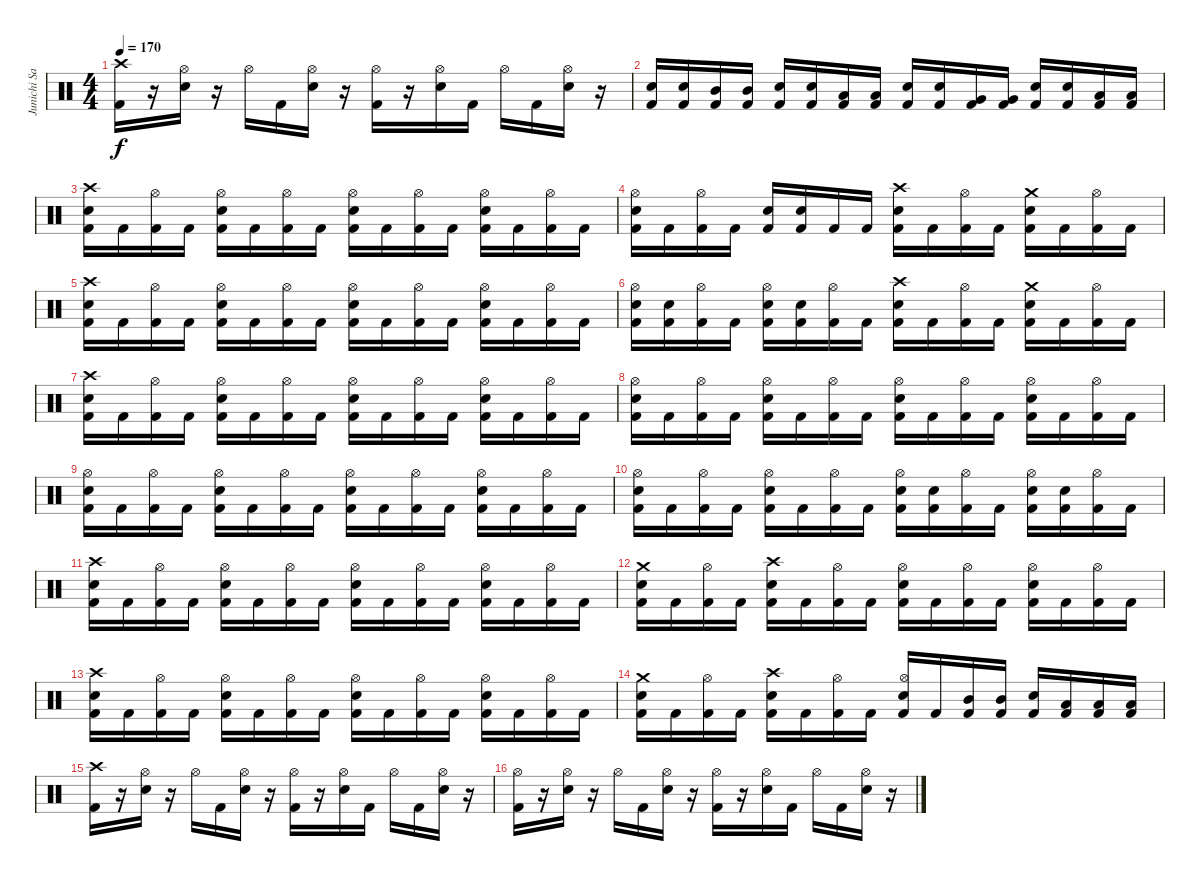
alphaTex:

\track ("Junichi Sato" "Junichi Sa") {instrument percussion}
\staff {score}
\articulation defaults
\ts (4 4)
\tempo 170
\clef neutral
\ks c
("Crash high (hit)" "Kick (hit) 2").16{dy f} r.16 ("Hi-Hat (open)" "Electric Snare (hit)").16 r.16 "Hi-Hat (open)".16 "Kick (hit) 2".16 ("Hi-Hat (open)" "Electric Snare (hit)").16 r.16 ("Hi-Hat (open)" "Kick (hit) 2").16 r.16 ("Hi-Hat (open)" "Electric Snare (hit)").16 "Kick (hit) 2".16 "Hi-Hat (open)".16 "Kick (hit) 2".16 ("Hi-Hat (open)" "Electric Snare (hit)").16 r.16 |
("Electric Snare (hit)" "Kick (hit) 2").16 ("Electric Snare (hit)" "Kick (hit) 2").16 ("Mid Tom (hit)" "Kick (hit) 2").16 ("Mid Tom (hit)" "Kick (hit) 2").16 ("Electric Snare (hit)" "Kick (hit) 2").16 ("Electric Snare (hit)" "Kick (hit) 2").16 ("Low Tom (hit)" "Kick (hit) 2").16 ("Low Tom (hit)" "Kick (hit) 2").16 ("Electric Snare (hit)" "Kick (hit) 2").16 ("Electric Snare (hit)" "Kick (hit) 2").16 ("Very Low Tom (hit)" "Kick (hit) 2").16 ("Very Low Tom (hit)" "Kick (hit) 2").16 ("Electric Snare (hit)" "Kick (hit) 2").16 ("Electric Snare (hit)" "Kick (hit) 2").16 ("Low Floor Tom (hit)" "Kick (hit) 2").16 ("Low Floor Tom (hit)" "Kick (hit) 2").16 |
("Crash high (hit)" "Electric Snare (hit)" "Kick (hit) 2").16 "Kick (hit) 2".16 ("Hi-Hat (open)" "Kick (hit) 2").16 "Kick (hit) 2".16 ("Hi-Hat (open)" "Electric Snare (hit)" "Kick (hit) 2").16 "Kick (hit) 2".16 ("Hi-Hat (open)" "Kick (hit) 2").16 "Kick (hit) 2".16 ("Hi-Hat (open)" "Electric Snare (hit)" "Kick (hit) 2").16 "Kick (hit) 2".16 ("Hi-Hat (open)" "Kick (hit) 2").16 "Kick (hit) 2".16 ("Hi-Hat (open)" "Electric Snare (hit)" "Kick (hit) 2").16 "Kick (hit) 2".16 ("Hi-Hat (open)" "Kick (hit) 2").16 "Kick (hit) 2".16 |
("Hi-Hat (open)" "Electric Snare (hit)" "Kick (hit) 2").16 "Kick (hit) 2".16 ("Hi-Hat (open)" "Kick (hit) 2").16 "Kick (hit) 2".16 ("Electric Snare (hit)" "Kick (hit) 2").16 ("Electric Snare (hit)" "Kick (hit) 2").16 "Kick (hit) 2".16 "Kick (hit) 2".16 ("Crash high (hit)" "Electric Snare (hit)" "Kick (hit) 2").16 "Kick (hit) 2".16 ("Hi-Hat (open)" "Kick (hit) 2").16 "Kick (hit) 2".16 ("Crash medium (hit)" "Electric Snare (hit)" "Kick (hit) 2").16 "Kick (hit) 2".16 ("Hi-Hat (open)" "Kick (hit) 2").16 "Kick (hit) 2".16 |
("Crash high (hit)" "Electric Snare (hit)" "Kick (hit) 2").16 "Kick (hit) 2".16 ("Hi-Hat (open)" "Kick (hit) 2").16 "Kick (hit) 2".16 ("Hi-Hat (open)" "Electric Snare (hit)" "Kick (hit) 2").16 "Kick (hit) 2".16 ("Hi-Hat (open)" "Kick (hit) 2").16 "Kick (hit) 2".16 ("Hi-Hat (open)" "Electric Snare (hit)" "Kick (hit) 2").16 "Kick (hit) 2".16 ("Hi-Hat (open)" "Kick (hit) 2").16 "Kick (hit) 2".16 ("Hi-Hat (open)" "Electric Snare (hit)" "Kick (hit) 2").16 "Kick (hit) 2".16 ("Hi-Hat (open)" "Kick (hit) 2").16 "Kick (hit) 2".16 |
("Hi-Hat (open)" "Electric Snare (hit)" "Kick (hit) 2").16 ("Electric Snare (hit)" "Kick (hit) 2").16 ("Hi-Hat (open)" "Kick (hit) 2").16 "Kick (hit) 2".16 ("Hi-Hat (open)" "Electric Snare (hit)" "Kick (hit) 2").16 ("Electric Snare (hit)" "Kick (hit) 2").16 ("Hi-Hat (open)" "Kick (hit) 2").16 "Kick (hit) 2".16 ("Crash high (hit)" "Electric Snare (hit)" "Kick (hit) 2").16 "Kick (hit) 2".16 ("Hi-Hat (open)" "Kick (hit) 2").16 "Kick (hit) 2".16 ("Crash medium (hit)" "Electric Snare (hit)" "Kick (hit) 2").16 "Kick (hit) 2".16 ("Hi-Hat (open)" "Kick (hit) 2").16 "Kick (hit) 2".16 |
("Crash high (hit)" "Electric Snare (hit)" "Kick (hit) 2").16 "Kick (hit) 2".16 ("Hi-Hat (open)" "Kick (hit) 2").16 "Kick (hit) 2".16 ("Hi-Hat (open)" "Electric Snare (hit)" "Kick (hit) 2").16 "Kick (hit) 2".16 ("Hi-Hat (open)" "Kick (hit) 2").16 "Kick (hit) 2".16 ("Hi-Hat (open)" "Electric Snare (hit)" "Kick (hit) 2").16 "Kick (hit) 2".16 ("Hi-Hat (open)" "Kick (hit) 2").16 "Kick (hit) 2".16 ("Hi-Hat (open)" "Electric Snare (hit)" "Kick (hit) 2").16 "Kick (hit) 2".16 ("Hi-Hat (open)" "Kick (hit) 2").16 "Kick (hit) 2".16 |
("Hi-Hat (open)" "Electric Snare (hit)" "Kick (hit) 2").16 "Kick (hit) 2".16 ("Hi-Hat (open)" "Kick (hit) 2").16 "Kick (hit) 2".16 ("Hi-Hat (open)" "Electric Snare (hit)" "Kick (hit) 2").16 "Kick (hit) 2".16 ("Hi-Hat (open)" "Kick (hit) 2").16 "Kick (hit) 2".16 ("Hi-Hat (open)" "Electric Snare (hit)" "Kick (hit) 2").16 "Kick (hit) 2".16 ("Hi-Hat (open)" "Kick (hit) 2").16 "Kick (hit) 2".16 ("Hi-Hat (open)" "Electric Snare (hit)" "Kick (hit) 2").16 "Kick (hit) 2".16 ("Hi-Hat (open)" "Kick (hit) 2").16 "Kick (hit) 2".16 |
("Hi-Hat (open)" "Electric Snare (hit)" "Kick (hit) 2").16 "Kick (hit) 2".16 ("Hi-Hat (open)" "Kick (hit) 2").16 "Kick (hit) 2".16 ("Hi-Hat (open)" "Electric Snare (hit)" "Kick (hit) 2").16 "Kick (hit) 2".16 ("Hi-Hat (open)" "Kick (hit) 2").16 "Kick (hit) 2".16 ("Hi-Hat (open)" "Electric Snare (hit)" "Kick (hit) 2").16 "Kick (hit) 2".16 ("Hi-Hat (open)" "Kick (hit) 2").16 "Kick (hit) 2".16 ("Hi-Hat (open)" "Electric Snare (hit)" "Kick (hit) 2").16 "Kick (hit) 2".16 ("Hi-Hat (open)" "Kick (hit) 2").16 "Kick (hit) 2".16 |
("Hi-Hat (open)" "Electric Snare (hit)" "Kick (hit) 2").16 "Kick (hit) 2".16 ("Hi-Hat (open)" "Kick (hit) 2").16 "Kick (hit) 2".16 ("Hi-Hat (open)" "Electric Snare (hit)" "Kick (hit) 2").16 "Kick (hit) 2".16 ("Hi-Hat (open)" "Kick (hit) 2").16 "Kick (hit) 2".16 ("Hi-Hat (open)" "Electric Snare (hit)" "Kick (hit) 2").16 ("Electric Snare (hit)" "Kick (hit) 2").16 ("Hi-Hat (open)" "Kick (hit) 2").16 "Kick (hit) 2".16 ("Hi-Hat (open)" "Electric Snare (hit)" "Kick (hit) 2").16 ("Electric Snare (hit)" "Kick (hit) 2").16 ("Hi-Hat (open)" "Kick (hit) 2").16 "Kick (hit) 2".16 |
("Crash high (hit)" "Electric Snare (hit)" "Kick (hit) 2").16 "Kick (hit) 2".16 ("Hi-Hat (open)" "Kick (hit) 2").16 "Kick (hit) 2".16 ("Hi-Hat (open)" "Electric Snare (hit)" "Kick (hit) 2").16 "Kick (hit) 2".16 ("Hi-Hat (open)" "Kick (hit) 2").16 "Kick (hit) 2".16 ("Hi-Hat (open)" "Electric Snare (hit)" "Kick (hit) 2").16 "Kick (hit) 2".16 ("Hi-Hat (open)" "Kick (hit) 2").16 "Kick (hit) 2".16 ("Hi-Hat (open)" "Electric Snare (hit)" "Kick (hit) 2").16 "Kick (hit) 2".16 ("Hi-Hat (open)" "Kick (hit) 2").16 "Kick (hit) 2".16 |
("Crash medium (hit)" "Electric Snare (hit)" "Kick (hit) 2").16 "Kick (hit) 2".16 ("Hi-Hat (open)" "Kick (hit) 2").16 "Kick (hit) 2".16 ("Crash high (hit)" "Electric Snare (hit)" "Kick (hit) 2").16 "Kick (hit) 2".16 ("Hi-Hat (open)" "Kick (hit) 2").16 "Kick (hit) 2".16 ("Hi-Hat (open)" "Electric Snare (hit)" "Kick (hit) 2").16 "Kick (hit) 2".16 ("Hi-Hat (open)" "Kick (hit) 2").16 "Kick (hit) 2".16 ("Hi-Hat (open)" "Electric Snare (hit)" "Kick (hit) 2").16 "Kick (hit) 2".16 ("Hi-Hat (open)" "Kick (hit) 2").16 "Kick (hit) 2".16 |
("Crash high (hit)" "Electric Snare (hit)" "Kick (hit) 2").16 "Kick (hit) 2".16 ("Hi-Hat (open)" "Kick (hit) 2").16 "Kick (hit) 2".16 ("Hi-Hat (open)" "Electric Snare (hit)" "Kick (hit) 2").16 "Kick (hit) 2".16 ("Hi-Hat (open)" "Kick (hit) 2").16 "Kick (hit) 2".16 ("Hi-Hat (open)" "Electric Snare (hit)" "Kick (hit) 2").16 "Kick (hit) 2".16 ("Hi-Hat (open)" "Kick (hit) 2").16 "Kick (hit) 2".16 ("Hi-Hat (open)" "Electric Snare (hit)" "Kick (hit) 2").16 "Kick (hit) 2".16 ("Hi-Hat (open)" "Kick (hit) 2").16 "Kick (hit) 2".16 |
("Crash medium (hit)" "Electric Snare (hit)" "Kick (hit) 2").16 "Kick (hit) 2".16 ("Hi-Hat (open)" "Kick (hit) 2").16 "Kick (hit) 2".16 ("Crash high (hit)" "Electric Snare (hit)" "Kick (hit) 2").16 "Kick (hit) 2".16 ("Hi-Hat (open)" "Kick (hit) 2").16 "Kick (hit) 2".16 ("Hi-Hat (open)" "Electric Snare (hit)" "Kick (hit) 2").16 "Kick (hit) 2".16 ("Mid Tom (hit)" "Kick (hit) 2").16 ("Mid Tom (hit)" "Kick (hit) 2").16 ("Electric Snare (hit)" "Kick (hit) 2").16 ("Low Tom (hit)" "Kick (hit) 2").16 ("Low Tom (hit)" "Kick (hit) 2").16 ("Low Tom (hit)" "Kick (hit) 2").16 |
("Crash high (hit)" "Kick (hit) 2").16 r.16 ("Hi-Hat (open)" "Electric Snare (hit)").16 r.16 "Hi-Hat (open)".16 "Kick (hit) 2".16 ("Hi-Hat (open)" "Electric Snare (hit)").16 r.16 ("Hi-Hat (open)" "Kick (hit) 2").16 r.16 ("Hi-Hat (open)" "Electric Snare (hit)").16 "Kick (hit) 2".16 "Hi-Hat (open)".16 "Kick (hit) 2".16 ("Hi-Hat (open)" "Electric Snare (hit)").16 r.16 |
("Hi-Hat (open)" "Kick (hit) 2").16 r.16 ("Hi-Hat (open)" "Electric Snare (hit)").16 r.16 "Hi-Hat (open)".16 "Kick (hit) 2".16 ("Hi-Hat (open)" "Electric Snare (hit)").16 r.16 ("Hi-Hat (open)" "Kick (hit) 2").16 r.16 ("Hi-Hat (open)" "Electric Snare (hit)").16 "Kick (hit) 2".16 "Hi-Hat (open)".16 "Kick (hit) 2".16 ("Hi-Hat (open)" "Electric Snare (hit)").16 r.16
